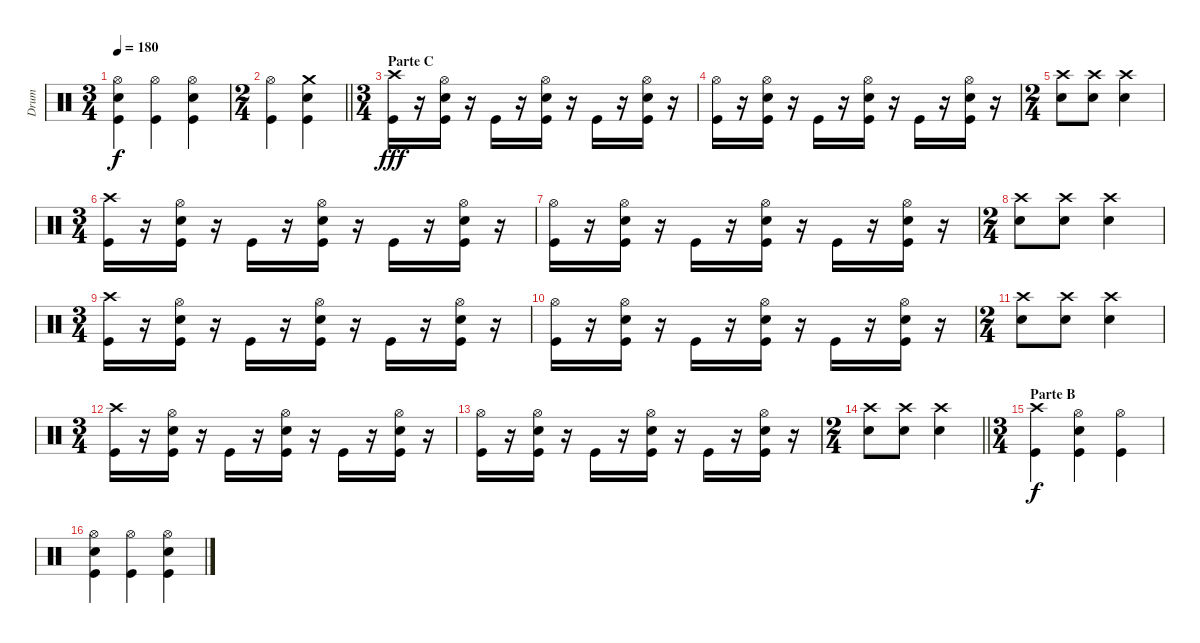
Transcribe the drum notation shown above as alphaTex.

\track ("Drum" "Drum") {instrument percussion}
\staff {score}
\articulation defaults
\ts (3 4)
\tempo 180
\clef neutral
\ks c
("Hi-Hat (open)" "Snare (hit) 2" "Kick (hit)").4{dy f} ("Hi-Hat (open)" "Kick (hit)").4 ("Hi-Hat (open)" "Snare (hit) 2" "Kick (hit)").4 |
\ts (2 4)
\barLineRight lightlight
("Hi-Hat (open)" "Kick (hit)").4 ("Crash medium (hit)" "Snare (hit) 2" "Kick (hit)").4 |
\ts (3 4)
\section ("" "Parte C")
("Crash high (hit)" "Kick (hit)").16{dy fff} r.16 ("Hi-Hat (open)" "Snare (hit) 2" "Kick (hit)").16 r.16 "Kick (hit)".16 r.16 ("Hi-Hat (open)" "Snare (hit) 2" "Kick (hit)").16 r.16 "Kick (hit)".16 r.16 ("Hi-Hat (open)" "Snare (hit) 2" "Kick (hit)").16 r.16 |
("Hi-Hat (open)" "Kick (hit)").16 r.16 ("Hi-Hat (open)" "Snare (hit) 2" "Kick (hit)").16 r.16 "Kick (hit)".16 r.16 ("Hi-Hat (open)" "Snare (hit) 2" "Kick (hit)").16 r.16 "Kick (hit)".16 r.16 ("Hi-Hat (open)" "Snare (hit) 2" "Kick (hit)").16 r.16 |
\ts (2 4)
("Crash high (hit)" "Snare (hit) 2").8 ("Crash high (hit)" "Snare (hit) 2").8 ("Crash high (hit)" "Snare (hit) 2").4 |
\ts (3 4)
("Crash high (hit)" "Kick (hit)").16 r.16 ("Hi-Hat (open)" "Snare (hit) 2" "Kick (hit)").16 r.16 "Kick (hit)".16 r.16 ("Hi-Hat (open)" "Snare (hit) 2" "Kick (hit)").16 r.16 "Kick (hit)".16 r.16 ("Hi-Hat (open)" "Snare (hit) 2" "Kick (hit)").16 r.16 |
("Hi-Hat (open)" "Kick (hit)").16 r.16 ("Hi-Hat (open)" "Snare (hit) 2" "Kick (hit)").16 r.16 "Kick (hit)".16 r.16 ("Hi-Hat (open)" "Snare (hit) 2" "Kick (hit)").16 r.16 "Kick (hit)".16 r.16 ("Hi-Hat (open)" "Snare (hit) 2" "Kick (hit)").16 r.16 |
\ts (2 4)
("Crash high (hit)" "Snare (hit) 2").8 ("Crash high (hit)" "Snare (hit) 2").8 ("Crash high (hit)" "Snare (hit) 2").4 |
\ts (3 4)
("Crash high (hit)" "Kick (hit)").16 r.16 ("Hi-Hat (open)" "Snare (hit) 2" "Kick (hit)").16 r.16 "Kick (hit)".16 r.16 ("Hi-Hat (open)" "Snare (hit) 2" "Kick (hit)").16 r.16 "Kick (hit)".16 r.16 ("Hi-Hat (open)" "Snare (hit) 2" "Kick (hit)").16 r.16 |
("Hi-Hat (open)" "Kick (hit)").16 r.16 ("Hi-Hat (open)" "Snare (hit) 2" "Kick (hit)").16 r.16 "Kick (hit)".16 r.16 ("Hi-Hat (open)" "Snare (hit) 2" "Kick (hit)").16 r.16 "Kick (hit)".16 r.16 ("Hi-Hat (open)" "Snare (hit) 2" "Kick (hit)").16 r.16 |
\ts (2 4)
("Crash high (hit)" "Snare (hit) 2").8 ("Crash high (hit)" "Snare (hit) 2").8 ("Crash high (hit)" "Snare (hit) 2").4 |
\ts (3 4)
("Crash high (hit)" "Kick (hit)").16 r.16 ("Hi-Hat (open)" "Snare (hit) 2" "Kick (hit)").16 r.16 "Kick (hit)".16 r.16 ("Hi-Hat (open)" "Snare (hit) 2" "Kick (hit)").16 r.16 "Kick (hit)".16 r.16 ("Hi-Hat (open)" "Snare (hit) 2" "Kick (hit)").16 r.16 |
("Hi-Hat (open)" "Kick (hit)").16 r.16 ("Hi-Hat (open)" "Snare (hit) 2" "Kick (hit)").16 r.16 "Kick (hit)".16 r.16 ("Hi-Hat (open)" "Snare (hit) 2" "Kick (hit)").16 r.16 "Kick (hit)".16 r.16 ("Hi-Hat (open)" "Snare (hit) 2" "Kick (hit)").16 r.16 |
\ts (2 4)
\barLineRight lightlight
("Crash high (hit)" "Snare (hit) 2").8 ("Crash high (hit)" "Snare (hit) 2").8 ("Crash high (hit)" "Snare (hit) 2").4 |
\ts (3 4)
\section ("" "Parte B")
("Crash high (hit)" "Kick (hit)").4{dy f} ("Hi-Hat (open)" "Snare (hit) 2" "Kick (hit)").4 ("Hi-Hat (open)" "Kick (hit)").4 |
("Hi-Hat (open)" "Snare (hit) 2" "Kick (hit)").4 ("Hi-Hat (open)" "Kick (hit)").4 ("Hi-Hat (open)" "Snare (hit) 2" "Kick (hit)").4
